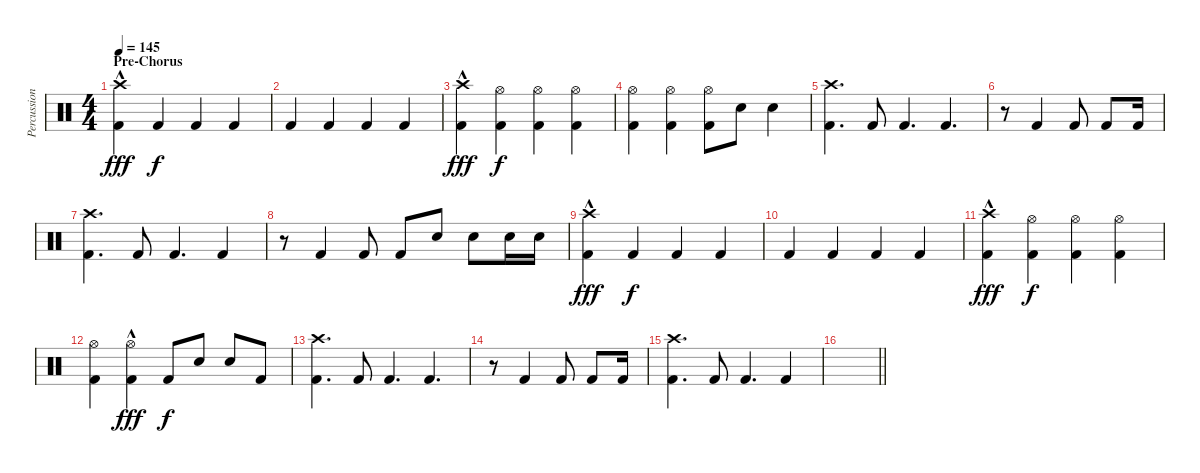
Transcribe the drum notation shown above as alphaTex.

\track ("Percussion" "Percussion") {instrument percussion}
\staff {score}
\articulation defaults
\ts (4 4)
\section ("" "Pre-Chorus")
\tempo 145
\clef neutral
\ks c
("Crash high (hit)"{hac} "Kick (hit) 2").4{dy fff} "Kick (hit) 2".4{dy f} "Kick (hit) 2".4 "Kick (hit) 2".4 |
"Kick (hit) 2".4 "Kick (hit) 2".4 "Kick (hit) 2".4 "Kick (hit) 2".4 |
("Crash high (hit)"{hac} "Kick (hit) 2").4{dy fff} ("Hi-Hat (open)" "Kick (hit) 2").4{dy f} ("Hi-Hat (open)" "Kick (hit) 2").4 ("Hi-Hat (open)" "Kick (hit) 2").4 |
("Hi-Hat (open)" "Kick (hit) 2").4 ("Hi-Hat (open)" "Kick (hit) 2").4 ("Hi-Hat (open)" "Kick (hit) 2").8 "Electric Snare (hit)".8 "Electric Snare (hit)".4 |
("Crash high (hit)" "Kick (hit) 2").4{d} "Kick (hit) 2".8 "Kick (hit) 2".4{d} "Kick (hit) 2".4{d} |
r.8 "Kick (hit) 2".4 "Kick (hit) 2".8 "Kick (hit) 2".8 "Kick (hit) 2".16 |
("Crash high (hit)" "Kick (hit) 2").4{d} "Kick (hit) 2".8 "Kick (hit) 2".4{d} "Kick (hit) 2".4 |
r.8 "Kick (hit) 2".4 "Kick (hit) 2".8 "Kick (hit) 2".8 "Electric Snare (hit)".8 "Electric Snare (hit)".8 "Electric Snare (hit)".16 "Electric Snare (hit)".16 |
("Crash high (hit)"{hac} "Kick (hit) 2").4{dy fff} "Kick (hit) 2".4{dy f} "Kick (hit) 2".4 "Kick (hit) 2".4 |
"Kick (hit) 2".4 "Kick (hit) 2".4 "Kick (hit) 2".4 "Kick (hit) 2".4 |
("Crash high (hit)"{hac} "Kick (hit) 2").4{dy fff} ("Hi-Hat (open)" "Kick (hit) 2").4{dy f} ("Hi-Hat (open)" "Kick (hit) 2").4 ("Hi-Hat (open)" "Kick (hit) 2").4 |
("Hi-Hat (open)" "Kick (hit) 2").4 ("Hi-Hat (open)"{hac} "Kick (hit) 2").4{dy fff} "Kick (hit) 2".8{dy f} "Electric Snare (hit)".8 "Electric Snare (hit)".8 "Kick (hit) 2".8 |
("Crash high (hit)" "Kick (hit) 2").4{d} "Kick (hit) 2".8 "Kick (hit) 2".4{d} "Kick (hit) 2".4{d} |
r.8 "Kick (hit) 2".4 "Kick (hit) 2".8 "Kick (hit) 2".8 "Kick (hit) 2".16 |
("Crash high (hit)" "Kick (hit) 2").4{d} "Kick (hit) 2".8 "Kick (hit) 2".4{d} "Kick (hit) 2".4 |
\barLineRight lightlight
